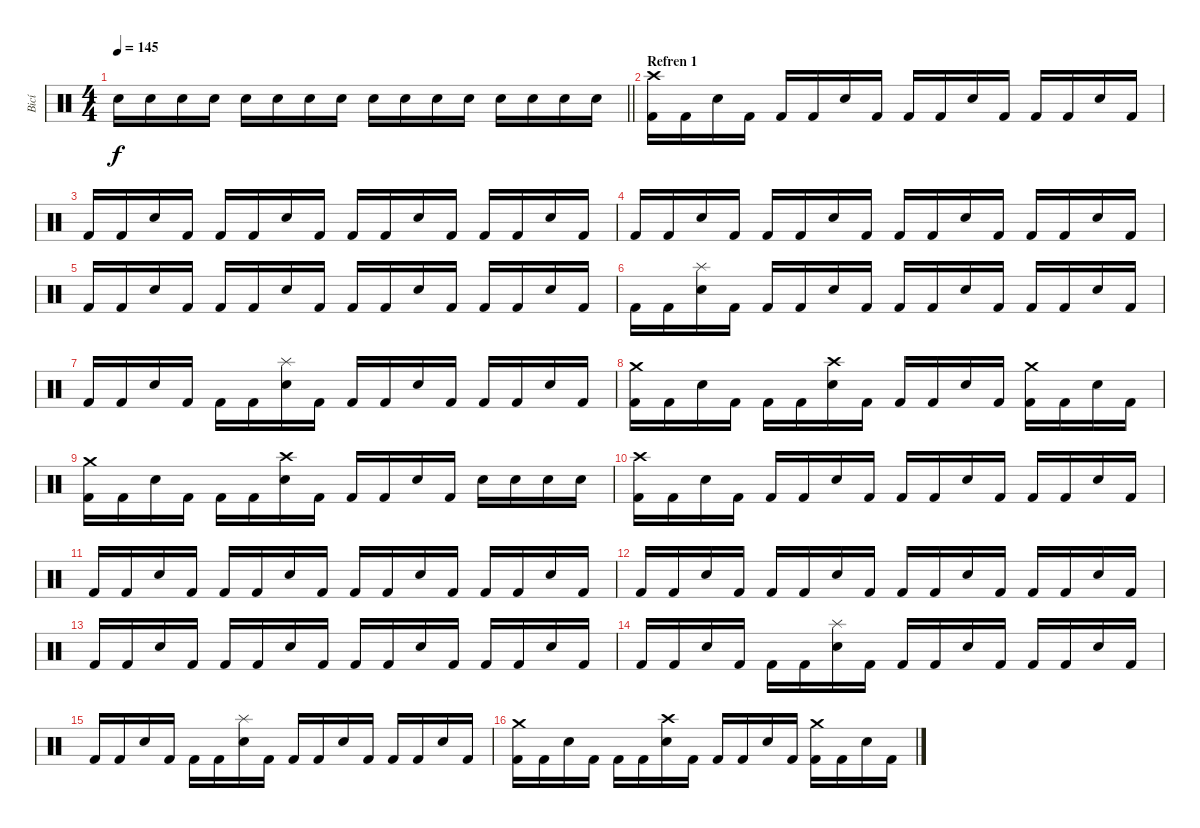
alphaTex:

\track ("Bicí" "Bicí") {instrument percussion}
\staff {score}
\articulation defaults
\ts (4 4)
\tempo 145
\clef neutral
\barLineRight lightlight
\ks c "Electric Snare (hit)".16{dy f} "Electric Snare (hit)".16 "Electric Snare (hit)".16 "Electric Snare (hit)".16 "Electric Snare (hit)".16 "Electric Snare (hit)".16 "Electric Snare (hit)".16 "Electric Snare (hit)".16 "Electric Snare (hit)".16 "Electric Snare (hit)".16 "Electric Snare (hit)".16 "Electric Snare (hit)".16 "Electric Snare (hit)".16 "Electric Snare (hit)".16 "Electric Snare (hit)".16 "Electric Snare (hit)".16
|
\section ("" "Refren 1")
("Kick (hit) 2" "Crash high (hit)").16 "Kick (hit) 2".16 "Electric Snare (hit)".16 "Kick (hit) 2".16 "Kick (hit) 2".16 "Kick (hit) 2".16 "Electric Snare (hit)".16 "Kick (hit) 2".16 "Kick (hit) 2".16 "Kick (hit) 2".16 "Electric Snare (hit)".16 "Kick (hit) 2".16 "Kick (hit) 2".16 "Kick (hit) 2".16 "Electric Snare (hit)".16 "Kick (hit) 2".16 |
"Kick (hit) 2".16 "Kick (hit) 2".16 "Electric Snare (hit)".16 "Kick (hit) 2".16 "Kick (hit) 2".16 "Kick (hit) 2".16 "Electric Snare (hit)".16 "Kick (hit) 2".16 "Kick (hit) 2".16 "Kick (hit) 2".16 "Electric Snare (hit)".16 "Kick (hit) 2".16 "Kick (hit) 2".16 "Kick (hit) 2".16 "Electric Snare (hit)".16 "Kick (hit) 2".16 |
"Kick (hit) 2".16 "Kick (hit) 2".16 "Electric Snare (hit)".16 "Kick (hit) 2".16 "Kick (hit) 2".16 "Kick (hit) 2".16 "Electric Snare (hit)".16 "Kick (hit) 2".16 "Kick (hit) 2".16 "Kick (hit) 2".16 "Electric Snare (hit)".16 "Kick (hit) 2".16 "Kick (hit) 2".16 "Kick (hit) 2".16 "Electric Snare (hit)".16 "Kick (hit) 2".16 |
"Kick (hit) 2".16 "Kick (hit) 2".16 "Electric Snare (hit)".16 "Kick (hit) 2".16 "Kick (hit) 2".16 "Kick (hit) 2".16 "Electric Snare (hit)".16 "Kick (hit) 2".16 "Kick (hit) 2".16 "Kick (hit) 2".16 "Electric Snare (hit)".16 "Kick (hit) 2".16 "Kick (hit) 2".16 "Kick (hit) 2".16 "Electric Snare (hit)".16 "Kick (hit) 2".16 |
"Kick (hit) 2".16 "Kick (hit) 2".16 ("Electric Snare (hit)" "Splash (hit)").16 "Kick (hit) 2".16 "Kick (hit) 2".16 "Kick (hit) 2".16 "Electric Snare (hit)".16 "Kick (hit) 2".16 "Kick (hit) 2".16 "Kick (hit) 2".16 "Electric Snare (hit)".16 "Kick (hit) 2".16 "Kick (hit) 2".16 "Kick (hit) 2".16 "Electric Snare (hit)".16 "Kick (hit) 2".16 |
"Kick (hit) 2".16 "Kick (hit) 2".16 "Electric Snare (hit)".16 "Kick (hit) 2".16 "Kick (hit) 2".16 "Kick (hit) 2".16 ("Electric Snare (hit)" "Splash (hit)").16 "Kick (hit) 2".16 "Kick (hit) 2".16 "Kick (hit) 2".16 "Electric Snare (hit)".16 "Kick (hit) 2".16 "Kick (hit) 2".16 "Kick (hit) 2".16 "Electric Snare (hit)".16 "Kick (hit) 2".16 |
("Kick (hit) 2" "Crash medium (hit)").16 "Kick (hit) 2".16 "Electric Snare (hit)".16 "Kick (hit) 2".16 "Kick (hit) 2".16 "Kick (hit) 2".16 ("Electric Snare (hit)" "Crash high (hit)").16 "Kick (hit) 2".16 "Kick (hit) 2".16 "Kick (hit) 2".16 "Electric Snare (hit)".16 "Kick (hit) 2".16 ("Kick (hit) 2" "Crash medium (hit)").16 "Kick (hit) 2".16 "Electric Snare (hit)".16 "Kick (hit) 2".16 |
("Kick (hit) 2" "Crash medium (hit)").16 "Kick (hit) 2".16 "Electric Snare (hit)".16 "Kick (hit) 2".16 "Kick (hit) 2".16 "Kick (hit) 2".16 ("Electric Snare (hit)" "Crash high (hit)").16 "Kick (hit) 2".16 "Kick (hit) 2".16 "Kick (hit) 2".16 "Electric Snare (hit)".16 "Kick (hit) 2".16 "Electric Snare (hit)".16 "Electric Snare (hit)".16 "Electric Snare (hit)".16 "Electric Snare (hit)".16 |
("Kick (hit) 2" "Crash high (hit)").16 "Kick (hit) 2".16 "Electric Snare (hit)".16 "Kick (hit) 2".16 "Kick (hit) 2".16 "Kick (hit) 2".16 "Electric Snare (hit)".16 "Kick (hit) 2".16 "Kick (hit) 2".16 "Kick (hit) 2".16 "Electric Snare (hit)".16 "Kick (hit) 2".16 "Kick (hit) 2".16 "Kick (hit) 2".16 "Electric Snare (hit)".16 "Kick (hit) 2".16 |
"Kick (hit) 2".16 "Kick (hit) 2".16 "Electric Snare (hit)".16 "Kick (hit) 2".16 "Kick (hit) 2".16 "Kick (hit) 2".16 "Electric Snare (hit)".16 "Kick (hit) 2".16 "Kick (hit) 2".16 "Kick (hit) 2".16 "Electric Snare (hit)".16 "Kick (hit) 2".16 "Kick (hit) 2".16 "Kick (hit) 2".16 "Electric Snare (hit)".16 "Kick (hit) 2".16 |
"Kick (hit) 2".16 "Kick (hit) 2".16 "Electric Snare (hit)".16 "Kick (hit) 2".16 "Kick (hit) 2".16 "Kick (hit) 2".16 "Electric Snare (hit)".16 "Kick (hit) 2".16 "Kick (hit) 2".16 "Kick (hit) 2".16 "Electric Snare (hit)".16 "Kick (hit) 2".16 "Kick (hit) 2".16 "Kick (hit) 2".16 "Electric Snare (hit)".16 "Kick (hit) 2".16 |
"Kick (hit) 2".16 "Kick (hit) 2".16 "Electric Snare (hit)".16 "Kick (hit) 2".16 "Kick (hit) 2".16 "Kick (hit) 2".16 "Electric Snare (hit)".16 "Kick (hit) 2".16 "Kick (hit) 2".16 "Kick (hit) 2".16 "Electric Snare (hit)".16 "Kick (hit) 2".16 "Kick (hit) 2".16 "Kick (hit) 2".16 "Electric Snare (hit)".16 "Kick (hit) 2".16 |
"Kick (hit) 2".16 "Kick (hit) 2".16 "Electric Snare (hit)".16 "Kick (hit) 2".16 "Kick (hit) 2".16 "Kick (hit) 2".16 ("Electric Snare (hit)" "Splash (hit)").16 "Kick (hit) 2".16 "Kick (hit) 2".16 "Kick (hit) 2".16 "Electric Snare (hit)".16 "Kick (hit) 2".16 "Kick (hit) 2".16 "Kick (hit) 2".16 "Electric Snare (hit)".16 "Kick (hit) 2".16 |
"Kick (hit) 2".16 "Kick (hit) 2".16 "Electric Snare (hit)".16 "Kick (hit) 2".16 "Kick (hit) 2".16 "Kick (hit) 2".16 ("Electric Snare (hit)" "Splash (hit)").16 "Kick (hit) 2".16 "Kick (hit) 2".16 "Kick (hit) 2".16 "Electric Snare (hit)".16 "Kick (hit) 2".16 "Kick (hit) 2".16 "Kick (hit) 2".16 "Electric Snare (hit)".16 "Kick (hit) 2".16 |
("Kick (hit) 2" "Crash medium (hit)").16 "Kick (hit) 2".16 "Electric Snare (hit)".16 "Kick (hit) 2".16 "Kick (hit) 2".16 "Kick (hit) 2".16 ("Electric Snare (hit)" "Crash high (hit)").16 "Kick (hit) 2".16 "Kick (hit) 2".16 "Kick (hit) 2".16 "Electric Snare (hit)".16 "Kick (hit) 2".16 ("Kick (hit) 2" "Crash medium (hit)").16 "Kick (hit) 2".16 "Electric Snare (hit)".16 "Kick (hit) 2".16
